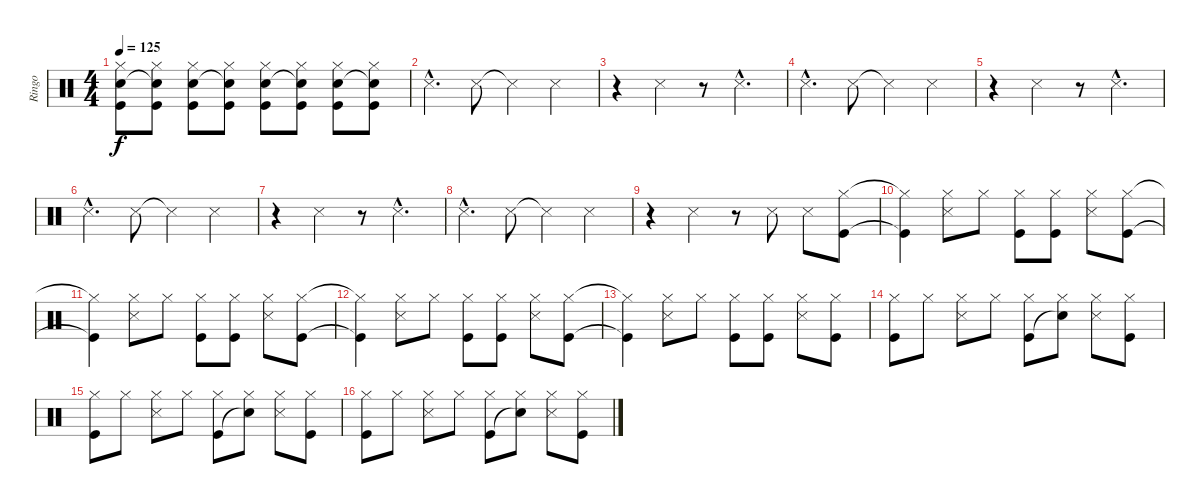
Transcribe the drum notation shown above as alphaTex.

\track ("Ringo" "Ringo") {instrument percussion}
\staff {score}
\articulation defaults
\ts (4 4)
\tempo 125
\clef neutral
\ks c
("Hi-Hat (closed)" "Hand Clap (hit)" "Kick (hit)").8{dy f} ("Hi-Hat (closed)" "Snare (hit)"{t} "Kick (hit)").8 ("Hi-Hat (closed)" "Hand Clap (hit)" "Kick (hit)").8 ("Hi-Hat (closed)" "Snare (hit)"{t} "Kick (hit)").8 ("Hi-Hat (closed)" "Hand Clap (hit)" "Kick (hit)").8 ("Hi-Hat (closed)" "Snare (hit)"{t} "Kick (hit)").8 ("Hi-Hat (closed)" "Hand Clap (hit)" "Kick (hit)").8 ("Hi-Hat (closed)" "Snare (hit)"{t} "Kick (hit)").8 |
"Snare (side stick) 3"{hac}.4{d} "Snare (side stick) 3".8 "Snare (side stick) 3"{t}.4 "Snare (side stick) 3".4 |
r.4 "Snare (side stick) 3".4 r.8 "Snare (side stick) 3"{hac}.4{d} |
"Snare (side stick) 3"{hac}.4{d} "Snare (side stick) 3".8 "Snare (side stick) 3"{t}.4 "Snare (side stick) 3".4 |
r.4 "Snare (side stick) 3".4 r.8 "Snare (side stick) 3"{hac}.4{d} |
"Snare (side stick) 3"{hac}.4{d} "Snare (side stick) 3".8 "Snare (side stick) 3"{t}.4 "Snare (side stick) 3".4 |
r.4 "Snare (side stick) 3".4 r.8 "Snare (side stick) 3"{hac}.4{d} |
"Snare (side stick) 3"{hac}.4{d} "Snare (side stick) 3".8 "Snare (side stick) 3"{t}.4 "Snare (side stick) 3".4 |
r.4 "Snare (side stick) 3".4 r.8 "Snare (side stick) 3".8 "Snare (side stick) 3".8 ("Hi-Hat (closed)" "Kick (hit)").8 |
("Hi-Hat (closed)"{t} "Kick (hit)"{t}).4 ("Hi-Hat (closed)" "Snare (side stick) 3").8 "Hi-Hat (closed)".8 ("Hi-Hat (closed)" "Kick (hit)").8 ("Hi-Hat (closed)" "Kick (hit)").8 ("Hi-Hat (closed)" "Snare (side stick) 3").8 ("Hi-Hat (closed)" "Kick (hit)").8 |
("Hi-Hat (closed)"{t} "Kick (hit)"{t}).4 ("Hi-Hat (closed)" "Snare (side stick) 3").8 "Hi-Hat (closed)".8 ("Hi-Hat (closed)" "Kick (hit)").8 ("Hi-Hat (closed)" "Kick (hit)").8 ("Hi-Hat (closed)" "Snare (side stick) 3").8 ("Hi-Hat (closed)" "Kick (hit)").8 |
("Hi-Hat (closed)"{t} "Kick (hit)"{t}).4 ("Hi-Hat (closed)" "Snare (side stick) 3").8 "Hi-Hat (closed)".8 ("Hi-Hat (closed)" "Kick (hit)").8 ("Hi-Hat (closed)" "Kick (hit)").8 ("Hi-Hat (closed)" "Snare (side stick) 3").8 ("Hi-Hat (closed)" "Kick (hit)").8 |
("Hi-Hat (closed)"{t} "Kick (hit)"{t}).4 ("Hi-Hat (closed)" "Snare (side stick) 3").8 "Hi-Hat (closed)".8 ("Hi-Hat (closed)" "Kick (hit)").8 ("Hi-Hat (closed)" "Kick (hit)").8 ("Hi-Hat (closed)" "Snare (side stick) 3").8 ("Hi-Hat (closed)" "Kick (hit)").8 |
("Hi-Hat (closed)" "Kick (hit)").8 "Hi-Hat (closed)".8 ("Hi-Hat (closed)" "Snare (side stick) 3").8 "Hi-Hat (closed)".8 ("Hi-Hat (closed)" "Kick (hit)").8 ("Hi-Hat (closed)" "Snare (hit)"{t}).8 ("Hi-Hat (closed)" "Snare (side stick) 3").8 ("Hi-Hat (closed)" "Kick (hit)").8 |
("Hi-Hat (closed)" "Kick (hit)").8 "Hi-Hat (closed)".8 ("Hi-Hat (closed)" "Snare (side stick) 3").8 "Hi-Hat (closed)".8 ("Hi-Hat (closed)" "Kick (hit)").8 ("Hi-Hat (closed)" "Snare (hit)"{t}).8 ("Hi-Hat (closed)" "Snare (side stick) 3").8 ("Hi-Hat (closed)" "Kick (hit)").8 |
("Hi-Hat (closed)" "Kick (hit)").8 "Hi-Hat (closed)".8 ("Hi-Hat (closed)" "Snare (side stick) 3").8 "Hi-Hat (closed)".8 ("Hi-Hat (closed)" "Kick (hit)").8 ("Hi-Hat (closed)" "Snare (hit)"{t}).8 ("Hi-Hat (closed)" "Snare (side stick) 3").8 ("Hi-Hat (closed)" "Kick (hit)").8
